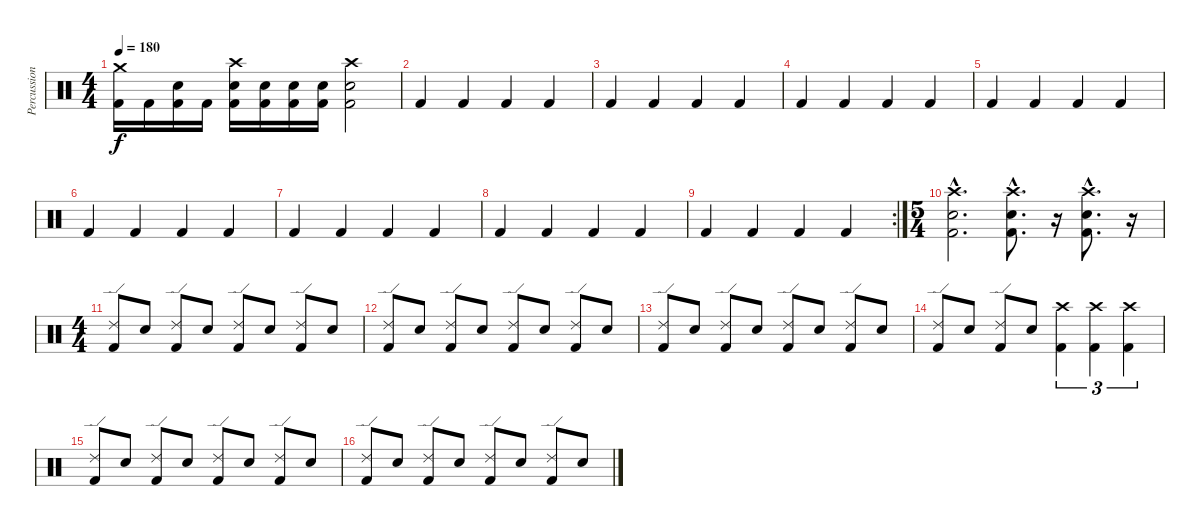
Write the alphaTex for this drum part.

\track ("Percussion" "Percussion") {instrument percussion}
\staff {score}
\articulation defaults
\ts (4 4)
\tempo 180
\clef neutral
\ks c
("Crash medium (hit)" "Kick (hit) 2").16{dy f} "Kick (hit) 2".16 ("Electric Snare (hit)" "Kick (hit) 2").16 "Kick (hit) 2".16 ("Crash high (hit)" "Electric Snare (hit)" "Kick (hit) 2").16 ("Electric Snare (hit)" "Kick (hit) 2").16 ("Electric Snare (hit)" "Kick (hit) 2").16 ("Electric Snare (hit)" "Kick (hit) 2").16 ("Crash high (hit)" "Electric Snare (hit)" "Kick (hit) 2").2 |
"Kick (hit) 2".4 "Kick (hit) 2".4 "Kick (hit) 2".4 "Kick (hit) 2".4 |
"Kick (hit) 2".4 "Kick (hit) 2".4 "Kick (hit) 2".4 "Kick (hit) 2".4 |
"Kick (hit) 2".4 "Kick (hit) 2".4 "Kick (hit) 2".4 "Kick (hit) 2".4 |
"Kick (hit) 2".4 "Kick (hit) 2".4 "Kick (hit) 2".4 "Kick (hit) 2".4 |
"Kick (hit) 2".4 "Kick (hit) 2".4 "Kick (hit) 2".4 "Kick (hit) 2".4 |
"Kick (hit) 2".4 "Kick (hit) 2".4 "Kick (hit) 2".4 "Kick (hit) 2".4 |
"Kick (hit) 2".4 "Kick (hit) 2".4 "Kick (hit) 2".4 "Kick (hit) 2".4 |
\rc 2 "Kick (hit) 2".4 "Kick (hit) 2".4 "Kick (hit) 2".4 "Kick (hit) 2".4
|
\ts (5 4)
("Crash high (hit)"{hac} "Electric Snare (hit)"{hac} "Kick (hit) 2"{hac}).2{d} ("Crash high (hit)"{hac} "Electric Snare (hit)"{hac} "Kick (hit) 2"{hac}).8{d} r.16 ("Crash high (hit)"{hac} "Electric Snare (hit)"{hac} "Kick (hit) 2"{hac}).8{d} r.16 |
\ts (4 4)
("Ride (edge) 2" "Kick (hit) 2").8 "Electric Snare (hit)".8 ("Ride (edge) 2" "Kick (hit) 2").8 "Electric Snare (hit)".8 ("Ride (edge) 2" "Kick (hit) 2").8 "Electric Snare (hit)".8 ("Ride (edge) 2" "Kick (hit) 2").8 "Electric Snare (hit)".8 |
("Ride (edge) 2" "Kick (hit) 2").8 "Electric Snare (hit)".8 ("Ride (edge) 2" "Kick (hit) 2").8 "Electric Snare (hit)".8 ("Ride (edge) 2" "Kick (hit) 2").8 "Electric Snare (hit)".8 ("Ride (edge) 2" "Kick (hit) 2").8 "Electric Snare (hit)".8 |
("Ride (edge) 2" "Kick (hit) 2").8 "Electric Snare (hit)".8 ("Ride (edge) 2" "Kick (hit) 2").8 "Electric Snare (hit)".8 ("Ride (edge) 2" "Kick (hit) 2").8 "Electric Snare (hit)".8 ("Ride (edge) 2" "Kick (hit) 2").8 "Electric Snare (hit)".8 |
("Ride (edge) 2" "Kick (hit) 2").8 "Electric Snare (hit)".8 ("Ride (edge) 2" "Kick (hit) 2").8 "Electric Snare (hit)".8 ("Crash high (hit)" "Kick (hit) 2").4{tu (3 2)} ("Crash high (hit)" "Kick (hit) 2").4{tu (3 2)} ("Crash high (hit)" "Kick (hit) 2").4{tu (3 2)} |
("Ride (edge) 2" "Kick (hit) 2").8 "Electric Snare (hit)".8 ("Ride (edge) 2" "Kick (hit) 2").8 "Electric Snare (hit)".8 ("Ride (edge) 2" "Kick (hit) 2").8 "Electric Snare (hit)".8 ("Ride (edge) 2" "Kick (hit) 2").8 "Electric Snare (hit)".8 |
("Ride (edge) 2" "Kick (hit) 2").8 "Electric Snare (hit)".8 ("Ride (edge) 2" "Kick (hit) 2").8 "Electric Snare (hit)".8 ("Ride (edge) 2" "Kick (hit) 2").8 "Electric Snare (hit)".8 ("Ride (edge) 2" "Kick (hit) 2").8 "Electric Snare (hit)".8
